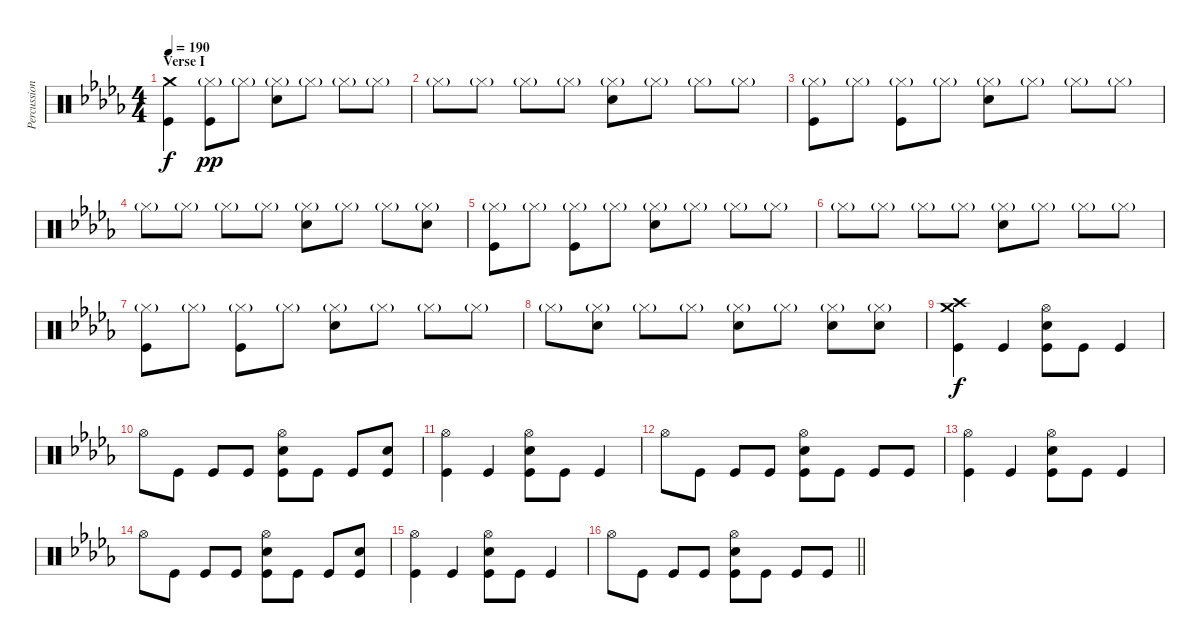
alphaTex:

\track ("Percussion" "Percussion") {instrument percussion}
\staff {score}
\articulation defaults
\ts (4 4)
\section ("" "Verse I")
\tempo 190
\clef neutral
\ks db
("Crash medium (hit)" "Kick (hit)").4{dy f} ("Hi-Hat (closed)"{g} "Kick (hit)").8{dy pp} "Hi-Hat (closed)"{g}.8 ("Hi-Hat (closed)"{g} "Electric Snare (hit)").8 "Hi-Hat (closed)"{g}.8 "Hi-Hat (closed)"{g}.8 "Hi-Hat (closed)"{g}.8 |
"Hi-Hat (closed)"{g}.8 "Hi-Hat (closed)"{g}.8 "Hi-Hat (closed)"{g}.8 "Hi-Hat (closed)"{g}.8 ("Hi-Hat (closed)"{g} "Electric Snare (hit)").8 "Hi-Hat (closed)"{g}.8 "Hi-Hat (closed)"{g}.8 "Hi-Hat (closed)"{g}.8 |
("Hi-Hat (closed)"{g} "Kick (hit)").8 "Hi-Hat (closed)"{g}.8 ("Hi-Hat (closed)"{g} "Kick (hit)").8 "Hi-Hat (closed)"{g}.8 ("Hi-Hat (closed)"{g} "Electric Snare (hit)").8 "Hi-Hat (closed)"{g}.8 "Hi-Hat (closed)"{g}.8 "Hi-Hat (closed)"{g}.8 |
"Hi-Hat (closed)"{g}.8 "Hi-Hat (closed)"{g}.8 "Hi-Hat (closed)"{g}.8 "Hi-Hat (closed)"{g}.8 ("Hi-Hat (closed)"{g} "Electric Snare (hit)").8 "Hi-Hat (closed)"{g}.8 "Hi-Hat (closed)"{g}.8 ("Hi-Hat (closed)"{g} "Electric Snare (hit)").8 |
("Hi-Hat (closed)"{g} "Kick (hit)").8 "Hi-Hat (closed)"{g}.8 ("Hi-Hat (closed)"{g} "Kick (hit)").8 "Hi-Hat (closed)"{g}.8 ("Hi-Hat (closed)"{g} "Electric Snare (hit)").8 "Hi-Hat (closed)"{g}.8 "Hi-Hat (closed)"{g}.8 "Hi-Hat (closed)"{g}.8 |
"Hi-Hat (closed)"{g}.8 "Hi-Hat (closed)"{g}.8 "Hi-Hat (closed)"{g}.8 "Hi-Hat (closed)"{g}.8 ("Hi-Hat (closed)"{g} "Electric Snare (hit)").8 "Hi-Hat (closed)"{g}.8 "Hi-Hat (closed)"{g}.8 "Hi-Hat (closed)"{g}.8 |
("Hi-Hat (closed)"{g} "Kick (hit)").8 "Hi-Hat (closed)"{g}.8 ("Hi-Hat (closed)"{g} "Kick (hit)").8 "Hi-Hat (closed)"{g}.8 ("Hi-Hat (closed)"{g} "Electric Snare (hit)").8 "Hi-Hat (closed)"{g}.8 "Hi-Hat (closed)"{g}.8 "Hi-Hat (closed)"{g}.8 |
"Hi-Hat (closed)"{g}.8 ("Hi-Hat (closed)"{g} "Electric Snare (hit)").8 "Hi-Hat (closed)"{g}.8 "Hi-Hat (closed)"{g}.8 ("Hi-Hat (closed)"{g} "Electric Snare (hit)").8 "Hi-Hat (closed)"{g}.8 ("Hi-Hat (closed)"{g} "Electric Snare (hit)").8 ("Hi-Hat (closed)"{g} "Electric Snare (hit)").8 |
("Crash high (hit)" "Crash medium (hit)" "Kick (hit)").4{dy f} "Kick (hit)".4 ("Hi-Hat (open)" "Electric Snare (hit)" "Kick (hit)").8 "Kick (hit)".8 "Kick (hit)".4 |
"Hi-Hat (open)".8 "Kick (hit)".8 "Kick (hit)".8 "Kick (hit)".8 ("Hi-Hat (open)" "Electric Snare (hit)" "Kick (hit)").8 "Kick (hit)".8 "Kick (hit)".8 ("Electric Snare (hit)" "Kick (hit)").8 |
("Hi-Hat (open)" "Kick (hit)").4 "Kick (hit)".4 ("Hi-Hat (open)" "Electric Snare (hit)" "Kick (hit)").8 "Kick (hit)".8 "Kick (hit)".4 |
"Hi-Hat (open)".8 "Kick (hit)".8 "Kick (hit)".8 "Kick (hit)".8 ("Hi-Hat (open)" "Electric Snare (hit)" "Kick (hit)").8 "Kick (hit)".8 "Kick (hit)".8 "Kick (hit)".8 |
("Hi-Hat (open)" "Kick (hit)").4 "Kick (hit)".4 ("Hi-Hat (open)" "Electric Snare (hit)" "Kick (hit)").8 "Kick (hit)".8 "Kick (hit)".4 |
"Hi-Hat (open)".8 "Kick (hit)".8 "Kick (hit)".8 "Kick (hit)".8 ("Hi-Hat (open)" "Electric Snare (hit)" "Kick (hit)").8 "Kick (hit)".8 "Kick (hit)".8 ("Electric Snare (hit)" "Kick (hit)").8 |
("Hi-Hat (open)" "Kick (hit)").4 "Kick (hit)".4 ("Hi-Hat (open)" "Electric Snare (hit)" "Kick (hit)").8 "Kick (hit)".8 "Kick (hit)".4 |
\barLineRight lightlight "Hi-Hat (open)".8 "Kick (hit)".8 "Kick (hit)".8 "Kick (hit)".8
("Hi-Hat (open)" "Electric Snare (hit)" "Kick (hit)").8 "Kick (hit)".8 "Kick (hit)".8 "Kick (hit)".8
